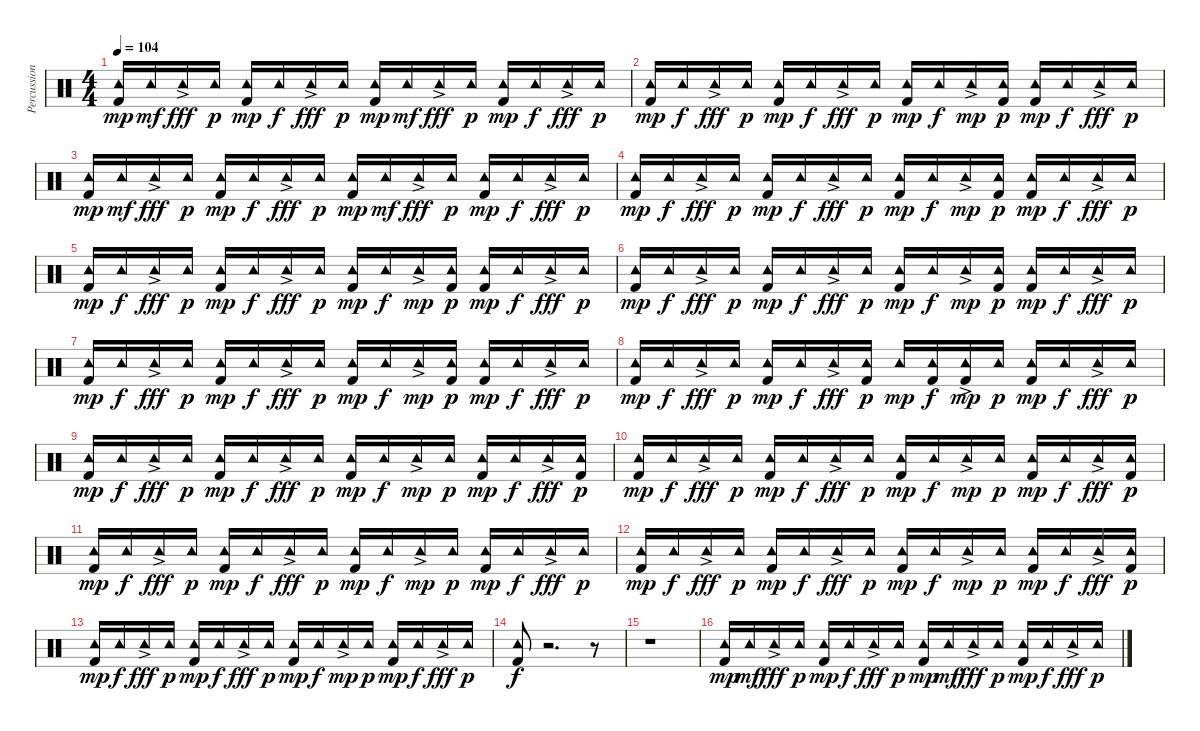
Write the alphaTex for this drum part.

\track ("Percussion" "Percussion") {instrument percussion}
\staff {score}
\articulation defaults
\ts (4 4)
\tempo 104
\clef neutral
\ks c
("Kick (hit) 2" "Tambourine (hit)").16{dy mp} "Tambourine (hit)".16{dy mf} "Tambourine (hit)"{ac}.16{dy fff} "Tambourine (hit)".16{dy p} ("Kick (hit) 2" "Tambourine (hit)").16{dy mp} "Tambourine (hit)".16{dy f} "Tambourine (hit)"{ac}.16{dy fff} "Tambourine (hit)".16{dy p} ("Kick (hit) 2" "Tambourine (hit)").16{dy mp} "Tambourine (hit)".16{dy mf} "Tambourine (hit)"{ac}.16{dy fff} "Tambourine (hit)".16{dy p} ("Kick (hit) 2" "Tambourine (hit)").16{dy mp} "Tambourine (hit)".16{dy f} "Tambourine (hit)"{ac}.16{dy fff} "Tambourine (hit)".16{dy p} |
("Kick (hit) 2" "Tambourine (hit)").16{dy mp} "Tambourine (hit)".16{dy f} "Tambourine (hit)"{ac}.16{dy fff} "Tambourine (hit)".16{dy p} ("Kick (hit) 2" "Tambourine (hit)").16{dy mp} "Tambourine (hit)".16{dy f} "Tambourine (hit)"{ac}.16{dy fff} "Tambourine (hit)".16{dy p} ("Kick (hit) 2" "Tambourine (hit)").16{dy mp} "Tambourine (hit)".16{dy f} "Tambourine (hit)"{ac}.16{dy mp} ("Kick (hit) 2" "Tambourine (hit)").16{dy p} ("Kick (hit) 2" "Tambourine (hit)").16{dy mp} "Tambourine (hit)".16{dy f} "Tambourine (hit)"{ac}.16{dy fff} "Tambourine (hit)".16{dy p} |
("Kick (hit) 2" "Tambourine (hit)").16{dy mp} "Tambourine (hit)".16{dy mf} "Tambourine (hit)"{ac}.16{dy fff} "Tambourine (hit)".16{dy p} ("Kick (hit) 2" "Tambourine (hit)").16{dy mp} "Tambourine (hit)".16{dy f} "Tambourine (hit)"{ac}.16{dy fff} "Tambourine (hit)".16{dy p} ("Kick (hit) 2" "Tambourine (hit)").16{dy mp} "Tambourine (hit)".16{dy mf} "Tambourine (hit)"{ac}.16{dy fff} "Tambourine (hit)".16{dy p} ("Kick (hit) 2" "Tambourine (hit)").16{dy mp} "Tambourine (hit)".16{dy f} "Tambourine (hit)"{ac}.16{dy fff} "Tambourine (hit)".16{dy p} |
("Kick (hit) 2" "Tambourine (hit)").16{dy mp} "Tambourine (hit)".16{dy f} "Tambourine (hit)"{ac}.16{dy fff} "Tambourine (hit)".16{dy p} ("Kick (hit) 2" "Tambourine (hit)").16{dy mp} "Tambourine (hit)".16{dy f} "Tambourine (hit)"{ac}.16{dy fff} "Tambourine (hit)".16{dy p} ("Kick (hit) 2" "Tambourine (hit)").16{dy mp} "Tambourine (hit)".16{dy f} "Tambourine (hit)"{ac}.16{dy mp} ("Kick (hit) 2" "Tambourine (hit)").16{dy p} ("Kick (hit) 2" "Tambourine (hit)").16{dy mp} "Tambourine (hit)".16{dy f} "Tambourine (hit)"{ac}.16{dy fff} "Tambourine (hit)".16{dy p} |
("Kick (hit) 2" "Tambourine (hit)").16{dy mp} "Tambourine (hit)".16{dy f} "Tambourine (hit)"{ac}.16{dy fff} "Tambourine (hit)".16{dy p} ("Kick (hit) 2" "Tambourine (hit)").16{dy mp} "Tambourine (hit)".16{dy f} "Tambourine (hit)"{ac}.16{dy fff} "Tambourine (hit)".16{dy p} ("Kick (hit) 2" "Tambourine (hit)").16{dy mp} "Tambourine (hit)".16{dy f} "Tambourine (hit)"{ac}.16{dy mp} ("Kick (hit) 2" "Tambourine (hit)").16{dy p} ("Kick (hit) 2" "Tambourine (hit)").16{dy mp} "Tambourine (hit)".16{dy f} "Tambourine (hit)"{ac}.16{dy fff} "Tambourine (hit)".16{dy p} |
("Kick (hit) 2" "Tambourine (hit)").16{dy mp} "Tambourine (hit)".16{dy f} "Tambourine (hit)"{ac}.16{dy fff} "Tambourine (hit)".16{dy p} ("Kick (hit) 2" "Tambourine (hit)").16{dy mp} "Tambourine (hit)".16{dy f} "Tambourine (hit)"{ac}.16{dy fff} "Tambourine (hit)".16{dy p} ("Kick (hit) 2" "Tambourine (hit)").16{dy mp} "Tambourine (hit)".16{dy f} "Tambourine (hit)"{ac}.16{dy mp} ("Kick (hit) 2" "Tambourine (hit)").16{dy p} ("Kick (hit) 2" "Tambourine (hit)").16{dy mp} "Tambourine (hit)".16{dy f} "Tambourine (hit)"{ac}.16{dy fff} "Tambourine (hit)".16{dy p} |
("Kick (hit) 2" "Tambourine (hit)").16{dy mp} "Tambourine (hit)".16{dy f} "Tambourine (hit)"{ac}.16{dy fff} "Tambourine (hit)".16{dy p} ("Kick (hit) 2" "Tambourine (hit)").16{dy mp} "Tambourine (hit)".16{dy f} "Tambourine (hit)"{ac}.16{dy fff} "Tambourine (hit)".16{dy p} ("Kick (hit) 2" "Tambourine (hit)").16{dy mp} "Tambourine (hit)".16{dy f} "Tambourine (hit)"{ac}.16{dy mp} ("Kick (hit) 2" "Tambourine (hit)").16{dy p} ("Kick (hit) 2" "Tambourine (hit)").16{dy mp} "Tambourine (hit)".16{dy f} "Tambourine (hit)"{ac}.16{dy fff} "Tambourine (hit)".16{dy p} |
("Kick (hit) 2" "Tambourine (hit)").16{dy mp} "Tambourine (hit)".16{dy f} "Tambourine (hit)"{ac}.16{dy fff} "Tambourine (hit)".16{dy p} ("Kick (hit) 2" "Tambourine (hit)").16{dy mp} "Tambourine (hit)".16{dy f} "Tambourine (hit)"{ac}.16{dy fff} ("Kick (hit) 2" "Tambourine (hit)").16{dy p} "Tambourine (hit)".16{dy mp} ("Kick (hit) 2" "Tambourine (hit)").16{dy f} ("Kick (hit) 2" "Tambourine (hit)"{ac}).16{dy mp} "Tambourine (hit)".16{dy p} ("Kick (hit) 2" "Tambourine (hit)").16{dy mp} "Tambourine (hit)".16{dy f} "Tambourine (hit)"{ac}.16{dy fff} "Tambourine (hit)".16{dy p} |
("Kick (hit) 2" "Tambourine (hit)").16{dy mp} "Tambourine (hit)".16{dy f} "Tambourine (hit)"{ac}.16{dy fff} "Tambourine (hit)".16{dy p} ("Kick (hit) 2" "Tambourine (hit)").16{dy mp} "Tambourine (hit)".16{dy f} "Tambourine (hit)"{ac}.16{dy fff} "Tambourine (hit)".16{dy p} ("Kick (hit) 2" "Tambourine (hit)").16{dy mp} "Tambourine (hit)".16{dy f} "Tambourine (hit)"{ac}.16{dy mp} "Tambourine (hit)".16{dy p} ("Kick (hit) 2" "Tambourine (hit)").16{dy mp} "Tambourine (hit)".16{dy f} "Tambourine (hit)"{ac}.16{dy fff} ("Kick (hit) 2" "Tambourine (hit)").16{dy p} |
("Kick (hit) 2" "Tambourine (hit)").16{dy mp} "Tambourine (hit)".16{dy f} "Tambourine (hit)"{ac}.16{dy fff} "Tambourine (hit)".16{dy p} ("Kick (hit) 2" "Tambourine (hit)").16{dy mp} "Tambourine (hit)".16{dy f} "Tambourine (hit)"{ac}.16{dy fff} "Tambourine (hit)".16{dy p} ("Kick (hit) 2" "Tambourine (hit)").16{dy mp} "Tambourine (hit)".16{dy f} "Tambourine (hit)"{ac}.16{dy mp} "Tambourine (hit)".16{dy p} ("Kick (hit) 2" "Tambourine (hit)").16{dy mp} "Tambourine (hit)".16{dy f} "Tambourine (hit)"{ac}.16{dy fff} ("Kick (hit) 2" "Tambourine (hit)").16{dy p} |
("Kick (hit) 2" "Tambourine (hit)").16{dy mp} "Tambourine (hit)".16{dy f} "Tambourine (hit)"{ac}.16{dy fff} "Tambourine (hit)".16{dy p} ("Kick (hit) 2" "Tambourine (hit)").16{dy mp} "Tambourine (hit)".16{dy f} "Tambourine (hit)"{ac}.16{dy fff} "Tambourine (hit)".16{dy p} ("Kick (hit) 2" "Tambourine (hit)").16{dy mp} "Tambourine (hit)".16{dy f} "Tambourine (hit)"{ac}.16{dy mp} "Tambourine (hit)".16{dy p} ("Kick (hit) 2" "Tambourine (hit)").16{dy mp} "Tambourine (hit)".16{dy f} "Tambourine (hit)"{ac}.16{dy fff} "Tambourine (hit)".16{dy p} |
("Kick (hit) 2" "Tambourine (hit)").16{dy mp} "Tambourine (hit)".16{dy f} "Tambourine (hit)"{ac}.16{dy fff} "Tambourine (hit)".16{dy p} ("Kick (hit) 2" "Tambourine (hit)").16{dy mp} "Tambourine (hit)".16{dy f} "Tambourine (hit)"{ac}.16{dy fff} "Tambourine (hit)".16{dy p} ("Kick (hit) 2" "Tambourine (hit)").16{dy mp} "Tambourine (hit)".16{dy f} "Tambourine (hit)"{ac}.16{dy mp} "Tambourine (hit)".16{dy p} ("Kick (hit) 2" "Tambourine (hit)").16{dy mp} "Tambourine (hit)".16{dy f} "Tambourine (hit)"{ac}.16{dy fff} ("Kick (hit) 2" "Tambourine (hit)").16{dy p} |
("Kick (hit) 2" "Tambourine (hit)").16{dy mp} "Tambourine (hit)".16{dy f} "Tambourine (hit)"{ac}.16{dy fff} "Tambourine (hit)".16{dy p} ("Kick (hit) 2" "Tambourine (hit)").16{dy mp} "Tambourine (hit)".16{dy f} "Tambourine (hit)"{ac}.16{dy fff} "Tambourine (hit)".16{dy p} ("Kick (hit) 2" "Tambourine (hit)").16{dy mp} "Tambourine (hit)".16{dy f} "Tambourine (hit)"{ac}.16{dy mp} "Tambourine (hit)".16{dy p} ("Kick (hit) 2" "Tambourine (hit)").16{dy mp} "Tambourine (hit)".16{dy f} "Tambourine (hit)"{ac}.16{dy fff} "Tambourine (hit)".16{dy p} |
("Kick (hit) 2" "Tambourine (hit)").8{dy f} r.2{d} r.8 |
r.1 |
("Kick (hit) 2" "Tambourine (hit)").16{dy mp} "Tambourine (hit)".16{dy mf} "Tambourine (hit)"{ac}.16{dy fff} "Tambourine (hit)".16{dy p} ("Kick (hit) 2" "Tambourine (hit)").16{dy mp} "Tambourine (hit)".16{dy f} "Tambourine (hit)"{ac}.16{dy fff} "Tambourine (hit)".16{dy p} ("Kick (hit) 2" "Tambourine (hit)").16{dy mp} "Tambourine (hit)".16{dy mf} "Tambourine (hit)"{ac}.16{dy fff} "Tambourine (hit)".16{dy p} ("Kick (hit) 2" "Tambourine (hit)").16{dy mp} "Tambourine (hit)".16{dy f} "Tambourine (hit)"{ac}.16{dy fff} "Tambourine (hit)".16{dy p}
